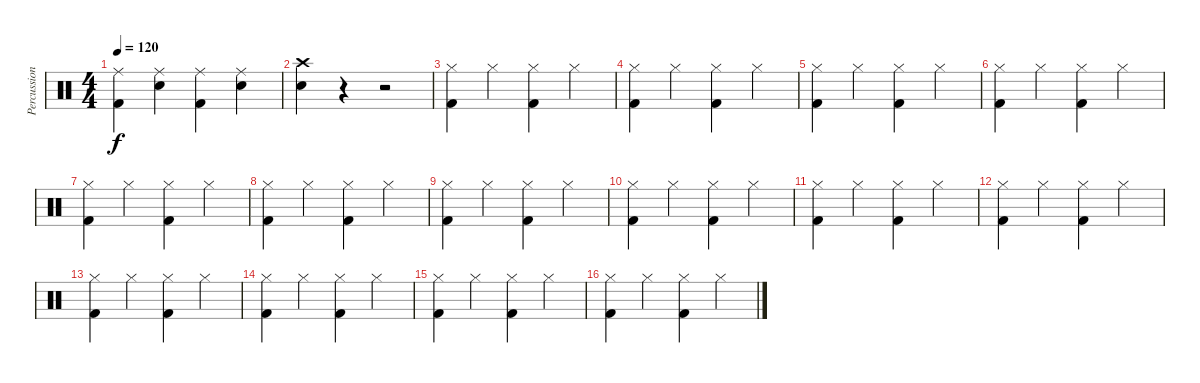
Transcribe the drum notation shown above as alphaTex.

\track ("Percussions" "Percussion") {instrument percussion}
\staff {score}
\articulation defaults
\ts (4 4)
\tempo 120
\clef neutral
\ks c
("Ride (middle)" "Kick (hit) 2").4{dy f} ("Ride (middle)" "Electric Snare (hit)").4 ("Ride (middle)" "Kick (hit) 2").4 ("Ride (middle)" "Electric Snare (hit)").4 |
("Crash high (hit)" "Electric Snare (hit)").4 r.4 r.2 |
("Hi-Hat (closed)" "Kick (hit) 2").4 "Hi-Hat (closed)".4 ("Hi-Hat (closed)" "Kick (hit) 2").4 "Hi-Hat (closed)".4 |
("Hi-Hat (closed)" "Kick (hit) 2").4 "Hi-Hat (closed)".4 ("Hi-Hat (closed)" "Kick (hit) 2").4 "Hi-Hat (closed)".4 |
("Hi-Hat (closed)" "Kick (hit) 2").4 "Hi-Hat (closed)".4 ("Hi-Hat (closed)" "Kick (hit) 2").4 "Hi-Hat (closed)".4 |
("Hi-Hat (closed)" "Kick (hit) 2").4 "Hi-Hat (closed)".4 ("Hi-Hat (closed)" "Kick (hit) 2").4 "Hi-Hat (closed)".4 |
("Hi-Hat (closed)" "Kick (hit) 2").4 "Hi-Hat (closed)".4 ("Hi-Hat (closed)" "Kick (hit) 2").4 "Hi-Hat (closed)".4 |
("Hi-Hat (closed)" "Kick (hit) 2").4 "Hi-Hat (closed)".4 ("Hi-Hat (closed)" "Kick (hit) 2").4 "Hi-Hat (closed)".4 |
("Hi-Hat (closed)" "Kick (hit) 2").4 "Hi-Hat (closed)".4 ("Hi-Hat (closed)" "Kick (hit) 2").4 "Hi-Hat (closed)".4 |
("Hi-Hat (closed)" "Kick (hit) 2").4 "Hi-Hat (closed)".4 ("Hi-Hat (closed)" "Kick (hit) 2").4 "Hi-Hat (closed)".4 |
("Hi-Hat (closed)" "Kick (hit) 2").4 "Hi-Hat (closed)".4 ("Hi-Hat (closed)" "Kick (hit) 2").4 "Hi-Hat (closed)".4 |
("Hi-Hat (closed)" "Kick (hit) 2").4 "Hi-Hat (closed)".4 ("Hi-Hat (closed)" "Kick (hit) 2").4 "Hi-Hat (closed)".4 |
("Hi-Hat (closed)" "Kick (hit) 2").4 "Hi-Hat (closed)".4 ("Hi-Hat (closed)" "Kick (hit) 2").4 "Hi-Hat (closed)".4 |
("Hi-Hat (closed)" "Kick (hit) 2").4 "Hi-Hat (closed)".4 ("Hi-Hat (closed)" "Kick (hit) 2").4 "Hi-Hat (closed)".4 |
("Hi-Hat (closed)" "Kick (hit) 2").4 "Hi-Hat (closed)".4 ("Hi-Hat (closed)" "Kick (hit) 2").4 "Hi-Hat (closed)".4 |
("Hi-Hat (closed)" "Kick (hit) 2").4 "Hi-Hat (closed)".4 ("Hi-Hat (closed)" "Kick (hit) 2").4 "Hi-Hat (closed)".4
